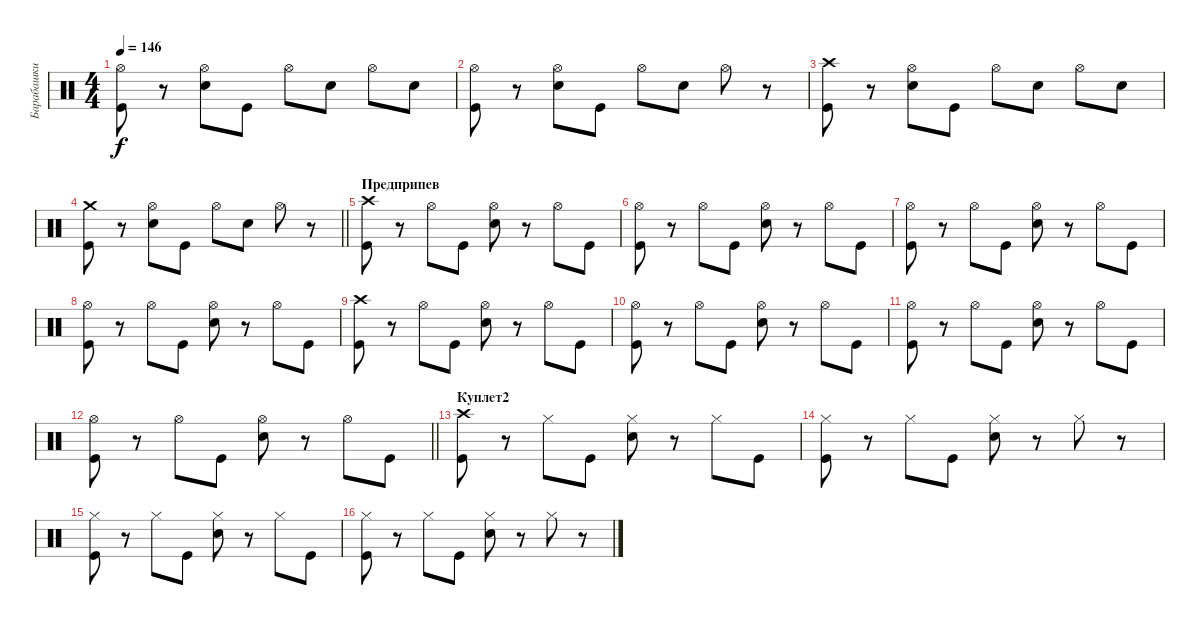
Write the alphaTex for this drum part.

\track ("Барабашки" "Барабашки") {instrument percussion}
\staff {score}
\articulation defaults
\ts (4 4)
\tempo 146
\clef neutral
\ks c
("Hi-Hat (open)" "Kick (hit)").8{dy f} r.8 ("Hi-Hat (open)" "Snare (hit) 2").8 "Kick (hit)".8 "Hi-Hat (open)".8 "Snare (hit) 2".8 "Hi-Hat (open)".8 "Snare (hit) 2".8 |
("Hi-Hat (open)" "Kick (hit)").8 r.8 ("Hi-Hat (open)" "Snare (hit) 2").8 "Kick (hit)".8 "Hi-Hat (open)".8 "Snare (hit) 2".8 "Hi-Hat (open)".8 r.8 |
("Crash high (hit)" "Kick (hit)").8 r.8 ("Hi-Hat (open)" "Snare (hit) 2").8 "Kick (hit)".8 "Hi-Hat (open)".8 "Snare (hit) 2".8 "Hi-Hat (open)".8 "Snare (hit) 2".8 |
\barLineRight lightlight
("Crash medium (hit)" "Kick (hit)").8 r.8 ("Hi-Hat (open)" "Snare (hit) 2").8 "Kick (hit)".8 "Hi-Hat (open)".8 "Snare (hit) 2".8 "Hi-Hat (open)".8 r.8 |
\section ("" "Предприпев")
("Crash high (hit)" "Kick (hit)").8 r.8 "Hi-Hat (open)".8 "Kick (hit)".8 ("Hi-Hat (open)" "Snare (hit) 2").8 r.8 "Hi-Hat (open)".8 "Kick (hit)".8 |
("Hi-Hat (open)" "Kick (hit)").8 r.8 "Hi-Hat (open)".8 "Kick (hit)".8 ("Hi-Hat (open)" "Snare (hit) 2").8 r.8 "Hi-Hat (open)".8 "Kick (hit)".8 |
("Hi-Hat (open)" "Kick (hit)").8 r.8 "Hi-Hat (open)".8 "Kick (hit)".8 ("Hi-Hat (open)" "Snare (hit) 2").8 r.8 "Hi-Hat (open)".8 "Kick (hit)".8 |
("Hi-Hat (open)" "Kick (hit)").8 r.8 "Hi-Hat (open)".8 "Kick (hit)".8 ("Hi-Hat (open)" "Snare (hit) 2").8 r.8 "Hi-Hat (open)".8 "Kick (hit)".8 |
("Crash high (hit)" "Kick (hit)").8 r.8 "Hi-Hat (open)".8 "Kick (hit)".8 ("Hi-Hat (open)" "Snare (hit) 2").8 r.8 "Hi-Hat (open)".8 "Kick (hit)".8 |
("Hi-Hat (open)" "Kick (hit)").8 r.8 "Hi-Hat (open)".8 "Kick (hit)".8 ("Hi-Hat (open)" "Snare (hit) 2").8 r.8 "Hi-Hat (open)".8 "Kick (hit)".8 |
("Hi-Hat (open)" "Kick (hit)").8 r.8 "Hi-Hat (open)".8 "Kick (hit)".8 ("Hi-Hat (open)" "Snare (hit) 2").8 r.8 "Hi-Hat (open)".8 "Kick (hit)".8 |
\barLineRight lightlight
("Hi-Hat (open)" "Kick (hit)").8 r.8 "Hi-Hat (open)".8 "Kick (hit)".8 ("Hi-Hat (open)" "Snare (hit) 2").8 r.8 "Hi-Hat (open)".8 "Kick (hit)".8 |
\section ("" "Куплет2")
("Crash high (hit)" "Kick (hit)").8 r.8 "Hi-Hat (closed)".8 "Kick (hit)".8 ("Hi-Hat (closed)" "Snare (hit) 2").8 r.8 "Hi-Hat (closed)".8 "Kick (hit)".8 |
("Hi-Hat (closed)" "Kick (hit)").8 r.8 "Hi-Hat (closed)".8 "Kick (hit)".8 ("Hi-Hat (closed)" "Snare (hit) 2").8 r.8 "Hi-Hat (closed)".8 r.8 |
("Hi-Hat (closed)" "Kick (hit)").8 r.8 "Hi-Hat (closed)".8 "Kick (hit)".8 ("Hi-Hat (closed)" "Snare (hit) 2").8 r.8 "Hi-Hat (closed)".8 "Kick (hit)".8 |
("Hi-Hat (closed)" "Kick (hit)").8 r.8 "Hi-Hat (closed)".8 "Kick (hit)".8 ("Hi-Hat (closed)" "Snare (hit) 2").8 r.8 "Hi-Hat (closed)".8 r.8
